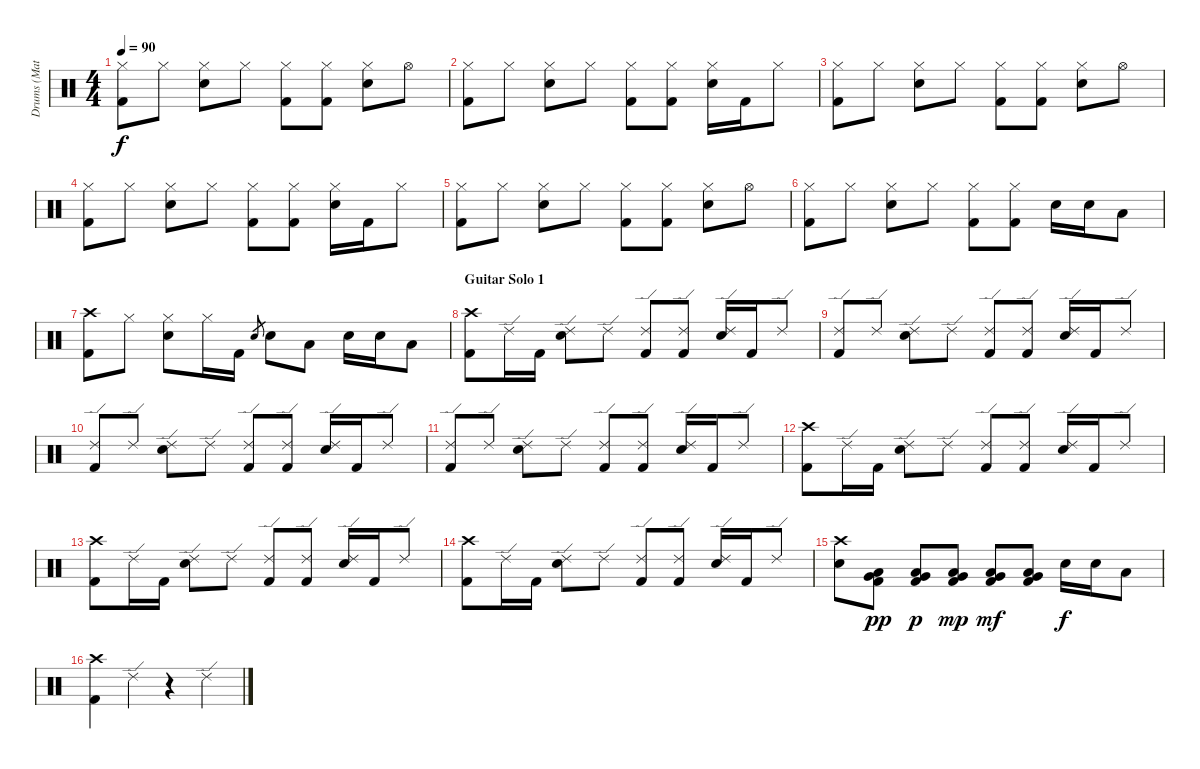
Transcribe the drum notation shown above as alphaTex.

\track ("Drums (Matt)" "Drums (Mat") {instrument percussion}
\staff {score}
\articulation defaults
\ts (4 4)
\tempo 90
\clef neutral
\ks c
("Hi-Hat (closed)" "Kick (hit) 2").8{dy f} "Hi-Hat (closed)".8 ("Hi-Hat (closed)" "Snare (hit) 2").8 "Hi-Hat (closed)".8 ("Hi-Hat (closed)" "Kick (hit) 2").8 ("Hi-Hat (closed)" "Kick (hit) 2").8 ("Hi-Hat (closed)" "Snare (hit) 2").8 "Hi-Hat (open)".8 |
("Hi-Hat (closed)" "Kick (hit) 2").8 "Hi-Hat (closed)".8 ("Hi-Hat (closed)" "Snare (hit) 2").8 "Hi-Hat (closed)".8 ("Hi-Hat (closed)" "Kick (hit) 2").8 ("Hi-Hat (closed)" "Kick (hit) 2").8 ("Hi-Hat (closed)" "Snare (hit) 2").16 "Kick (hit) 2".16 "Hi-Hat (closed)".8 |
("Hi-Hat (closed)" "Kick (hit) 2").8 "Hi-Hat (closed)".8 ("Hi-Hat (closed)" "Snare (hit) 2").8 "Hi-Hat (closed)".8 ("Hi-Hat (closed)" "Kick (hit) 2").8 ("Hi-Hat (closed)" "Kick (hit) 2").8 ("Hi-Hat (closed)" "Snare (hit) 2").8 "Hi-Hat (open)".8 |
("Hi-Hat (closed)" "Kick (hit) 2").8 "Hi-Hat (closed)".8 ("Hi-Hat (closed)" "Snare (hit) 2").8 "Hi-Hat (closed)".8 ("Hi-Hat (closed)" "Kick (hit) 2").8 ("Hi-Hat (closed)" "Kick (hit) 2").8 ("Hi-Hat (closed)" "Snare (hit) 2").16 "Kick (hit) 2".16 "Hi-Hat (closed)".8 |
("Hi-Hat (closed)" "Kick (hit) 2").8 "Hi-Hat (closed)".8 ("Hi-Hat (closed)" "Snare (hit) 2").8 "Hi-Hat (closed)".8 ("Hi-Hat (closed)" "Kick (hit) 2").8 ("Hi-Hat (closed)" "Kick (hit) 2").8 ("Hi-Hat (closed)" "Snare (hit) 2").8 "Hi-Hat (open)".8 |
("Hi-Hat (closed)" "Kick (hit) 2").8 "Hi-Hat (closed)".8 ("Hi-Hat (closed)" "Snare (hit) 2").8 "Hi-Hat (closed)".8 ("Hi-Hat (closed)" "Kick (hit) 2").8 ("Hi-Hat (closed)" "Kick (hit) 2").8 "Snare (hit) 2".16 "Snare (hit) 2".16 "Low Tom (hit)".8 |
("Crash high (hit)" "Kick (hit) 2").8 "Hi-Hat (closed)".8 ("Hi-Hat (closed)" "Snare (hit) 2").8 "Hi-Hat (closed)".16 "Kick (hit) 2".16 "Snare (hit) 2".8{gr} "Snare (hit) 2".8 "Low Tom (hit)".8 "Snare (hit) 2".16 "Snare (hit) 2".16 "Low Tom (hit)".8 |
\section ("" "Guitar Solo 1")
("Crash high (hit)" "Kick (hit) 2").8 "Ride (edge) 2".16 "Kick (hit) 2".16 ("Ride (edge) 2" "Snare (hit) 2").8 "Ride (edge) 2".8 ("Ride (edge) 2" "Kick (hit) 2").8 ("Ride (edge) 2" "Kick (hit) 2").8 ("Ride (edge) 2" "Snare (hit) 2").16 "Kick (hit) 2".16 "Ride (edge) 2".8 |
("Ride (edge) 2" "Kick (hit) 2").8 "Ride (edge) 2".8 ("Ride (edge) 2" "Snare (hit) 2").8 "Ride (edge) 2".8 ("Ride (edge) 2" "Kick (hit) 2").8 ("Ride (edge) 2" "Kick (hit) 2").8 ("Ride (edge) 2" "Snare (hit) 2").16 "Kick (hit) 2".16 "Ride (edge) 2".8 |
("Ride (edge) 2" "Kick (hit) 2").8 "Ride (edge) 2".8 ("Ride (edge) 2" "Snare (hit) 2").8 "Ride (edge) 2".8 ("Ride (edge) 2" "Kick (hit) 2").8 ("Ride (edge) 2" "Kick (hit) 2").8 ("Ride (edge) 2" "Snare (hit) 2").16 "Kick (hit) 2".16 "Ride (edge) 2".8 |
("Ride (edge) 2" "Kick (hit) 2").8 "Ride (edge) 2".8 ("Ride (edge) 2" "Snare (hit) 2").8 "Ride (edge) 2".8 ("Ride (edge) 2" "Kick (hit) 2").8 ("Ride (edge) 2" "Kick (hit) 2").8 ("Ride (edge) 2" "Snare (hit) 2").16 "Kick (hit) 2".16 "Ride (edge) 2".8 |
("Crash high (hit)" "Kick (hit) 2").8 "Ride (edge) 2".16 "Kick (hit) 2".16 ("Ride (edge) 2" "Snare (hit) 2").8 "Ride (edge) 2".8 ("Ride (edge) 2" "Kick (hit) 2").8 ("Ride (edge) 2" "Kick (hit) 2").8 ("Ride (edge) 2" "Snare (hit) 2").16 "Kick (hit) 2".16 "Ride (edge) 2".8 |
("Crash high (hit)" "Kick (hit) 2").8 "Ride (edge) 2".16 "Kick (hit) 2".16 ("Ride (edge) 2" "Snare (hit) 2").8 "Ride (edge) 2".8 ("Ride (edge) 2" "Kick (hit) 2").8 ("Ride (edge) 2" "Kick (hit) 2").8 ("Ride (edge) 2" "Snare (hit) 2").16 "Kick (hit) 2".16 "Ride (edge) 2".8 |
("Crash high (hit)" "Kick (hit) 2").8 "Ride (edge) 2".16 "Kick (hit) 2".16 ("Ride (edge) 2" "Snare (hit) 2").8 "Ride (edge) 2".8 ("Ride (edge) 2" "Kick (hit) 2").8 ("Ride (edge) 2" "Kick (hit) 2").8 ("Ride (edge) 2" "Snare (hit) 2").16 "Kick (hit) 2".16 "Ride (edge) 2".8 |
("Crash high (hit)" "Snare (hit) 2").8 ("Low Tom (hit)" "Very Low Tom (hit)" "Kick (hit) 2").8{dy pp} ("Low Tom (hit)" "Very Low Tom (hit)" "Kick (hit) 2").8{dy p} ("Low Tom (hit)" "Very Low Tom (hit)" "Kick (hit) 2").8{dy mp} ("Low Tom (hit)" "Very Low Tom (hit)" "Kick (hit) 2").8{dy mf} ("Low Tom (hit)" "Very Low Tom (hit)" "Kick (hit) 2").8 "Snare (hit) 2".16{dy f} "Snare (hit) 2".16 "Low Tom (hit)".8 |
("Crash high (hit)" "Kick (hit) 2").4 "Ride (edge) 2".4 r.4 "Ride (edge) 2".4
